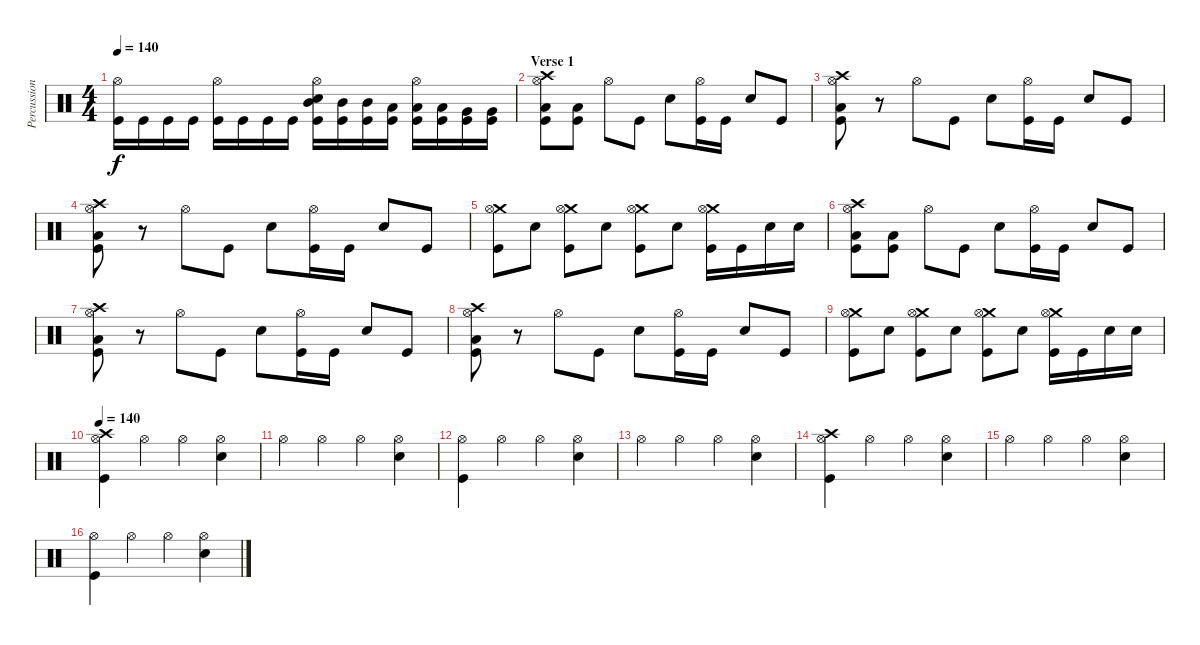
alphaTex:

\track ("Percussion" "Percussion") {instrument percussion}
\staff {score}
\articulation defaults
\ts (4 4)
\tempo 140
\clef neutral
\ks c
("Hi-Hat (open)" "Kick (hit)").16{dy f} "Kick (hit)".16 "Kick (hit)".16 "Kick (hit)".16 ("Hi-Hat (open)" "Kick (hit)").16 "Kick (hit)".16 "Kick (hit)".16 "Kick (hit)".16 ("Mid Tom (hit)" "Hi-Hat (open)" "Electric Snare (hit)" "Kick (hit)").16 ("Mid Tom (hit)" "Kick (hit)").16 ("Mid Tom (hit)" "Kick (hit)").16 ("Low Tom (hit)" "Kick (hit)").16 ("Low Tom (hit)" "Hi-Hat (open)" "Kick (hit)").16 ("Low Tom (hit)" "Kick (hit)").16 ("Very Low Tom (hit)" "Kick (hit)").16 ("Very Low Tom (hit)" "Kick (hit)").16 |
\section ("" "Verse 1")
("Crash high (hit)" "Hi-Hat (open)" "Low Floor Tom (hit)" "Kick (hit)").8 ("Low Floor Tom (hit)" "Kick (hit)").8 "Hi-Hat (open)".8 "Kick (hit)".8 "Electric Snare (hit)".8 ("Hi-Hat (open)" "Kick (hit)").16 "Kick (hit)".16 "Electric Snare (hit)".8 "Kick (hit)".8 |
("Crash high (hit)" "Hi-Hat (open)" "Low Floor Tom (hit)" "Kick (hit)").8 r.8 "Hi-Hat (open)".8 "Kick (hit)".8 "Electric Snare (hit)".8 ("Hi-Hat (open)" "Kick (hit)").16 "Kick (hit)".16 "Electric Snare (hit)".8 "Kick (hit)".8 |
("Crash high (hit)" "Hi-Hat (open)" "Low Floor Tom (hit)" "Kick (hit)").8 r.8 "Hi-Hat (open)".8 "Kick (hit)".8 "Electric Snare (hit)".8 ("Hi-Hat (open)" "Kick (hit)").16 "Kick (hit)".16 "Electric Snare (hit)".8 "Kick (hit)".8 |
("Crash medium (hit)" "Hi-Hat (open)" "Kick (hit)").8 "Electric Snare (hit)".8 ("Crash medium (hit)" "Hi-Hat (open)" "Kick (hit)").8 "Electric Snare (hit)".8 ("Crash medium (hit)" "Hi-Hat (open)" "Kick (hit)").8 "Electric Snare (hit)".8 ("Crash medium (hit)" "Hi-Hat (open)" "Kick (hit)").16 "Kick (hit)".16 "Electric Snare (hit)".16 "Electric Snare (hit)".16 |
("Crash high (hit)" "Hi-Hat (open)" "Low Floor Tom (hit)" "Kick (hit)").8 ("Low Floor Tom (hit)" "Kick (hit)").8 "Hi-Hat (open)".8 "Kick (hit)".8 "Electric Snare (hit)".8 ("Hi-Hat (open)" "Kick (hit)").16 "Kick (hit)".16 "Electric Snare (hit)".8 "Kick (hit)".8 |
("Crash high (hit)" "Hi-Hat (open)" "Low Floor Tom (hit)" "Kick (hit)").8 r.8 "Hi-Hat (open)".8 "Kick (hit)".8 "Electric Snare (hit)".8 ("Hi-Hat (open)" "Kick (hit)").16 "Kick (hit)".16 "Electric Snare (hit)".8 "Kick (hit)".8 |
("Crash high (hit)" "Hi-Hat (open)" "Low Floor Tom (hit)" "Kick (hit)").8 r.8 "Hi-Hat (open)".8 "Kick (hit)".8 "Electric Snare (hit)".8 ("Hi-Hat (open)" "Kick (hit)").16 "Kick (hit)".16 "Electric Snare (hit)".8 "Kick (hit)".8 |
("Crash medium (hit)" "Hi-Hat (open)" "Kick (hit)").8 "Electric Snare (hit)".8 ("Crash medium (hit)" "Hi-Hat (open)" "Kick (hit)").8 "Electric Snare (hit)".8 ("Crash medium (hit)" "Hi-Hat (open)" "Kick (hit)").8 "Electric Snare (hit)".8 ("Crash medium (hit)" "Hi-Hat (open)" "Kick (hit)").16 "Kick (hit)".16 "Electric Snare (hit)".16 "Electric Snare (hit)".16 |
\tempo 140
("Kick (hit)" "Hi-Hat (open)" "Crash high (hit)").4 "Hi-Hat (open)".4 "Hi-Hat (open)".4 ("Electric Snare (hit)" "Hi-Hat (open)").4 |
"Hi-Hat (open)".4 "Hi-Hat (open)".4 "Hi-Hat (open)".4 ("Electric Snare (hit)" "Hi-Hat (open)").4 |
("Kick (hit)" "Hi-Hat (open)").4 "Hi-Hat (open)".4 "Hi-Hat (open)".4 ("Electric Snare (hit)" "Hi-Hat (open)").4 |
"Hi-Hat (open)".4 "Hi-Hat (open)".4 "Hi-Hat (open)".4 ("Electric Snare (hit)" "Hi-Hat (open)").4 |
("Kick (hit)" "Hi-Hat (open)" "Crash high (hit)").4 "Hi-Hat (open)".4 "Hi-Hat (open)".4 ("Electric Snare (hit)" "Hi-Hat (open)").4 |
"Hi-Hat (open)".4 "Hi-Hat (open)".4 "Hi-Hat (open)".4 ("Electric Snare (hit)" "Hi-Hat (open)").4 |
("Kick (hit)" "Hi-Hat (open)").4 "Hi-Hat (open)".4 "Hi-Hat (open)".4 ("Electric Snare (hit)" "Hi-Hat (open)").4
